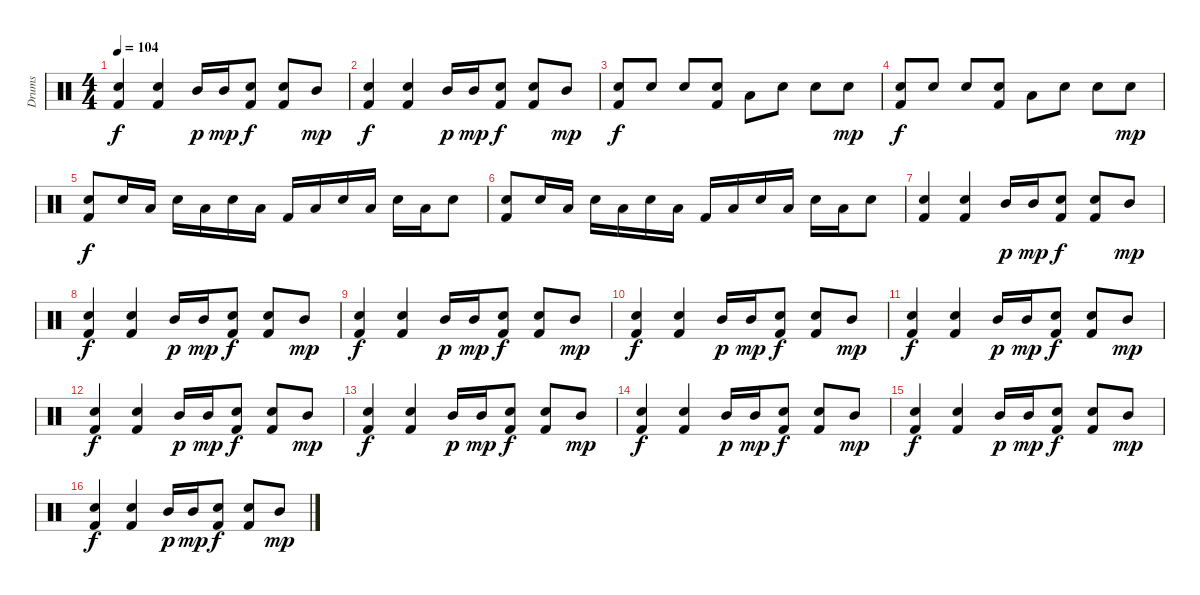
\track ("Drums" "Drums") {instrument percussion}
\staff {score}
\articulation defaults
\ts (4 4)
\tempo 104
\clef neutral
\ks c
("Snare (hit) 2" "Kick (hit) 2").4{dy f} ("Snare (hit) 2" "Kick (hit) 2").4 "Mid Tom (hit)".16{dy p} "Mid Tom (hit)".16{dy mp} ("Snare (hit) 2" "Kick (hit) 2").8{dy f} ("Snare (hit) 2" "Kick (hit) 2").8 "Mid Tom (hit)".8{dy mp} |
("Snare (hit) 2" "Kick (hit) 2").4{dy f} ("Snare (hit) 2" "Kick (hit) 2").4 "Mid Tom (hit)".16{dy p} "Mid Tom (hit)".16{dy mp} ("Snare (hit) 2" "Kick (hit) 2").8{dy f} ("Snare (hit) 2" "Kick (hit) 2").8 "Mid Tom (hit)".8{dy mp} |
("Snare (hit) 2" "Kick (hit) 2").8{dy f} "Snare (hit) 2".8 "Snare (hit) 2".8 ("Snare (hit) 2" "Kick (hit) 2").8 "Low Floor Tom (hit)".8 "Snare (hit) 2".8 "Snare (hit) 2".8 "Snare (hit) 2".8{dy mp} |
("Snare (hit) 2" "Kick (hit) 2").8{dy f} "Snare (hit) 2".8 "Snare (hit) 2".8 ("Snare (hit) 2" "Kick (hit) 2").8 "Low Floor Tom (hit)".8 "Snare (hit) 2".8 "Snare (hit) 2".8 "Snare (hit) 2".8{dy mp} |
("Snare (hit) 2" "Kick (hit) 2").8{dy f} "Snare (hit) 2".16 "Low Floor Tom (hit)".16 "Snare (hit) 2".16 "Low Floor Tom (hit)".16 "Snare (hit) 2".16 "Low Floor Tom (hit)".16 "Kick (hit) 2".16 "Low Floor Tom (hit)".16 "Snare (hit) 2".16 "Low Floor Tom (hit)".16 "Snare (hit) 2".16 "Low Floor Tom (hit)".16 "Snare (hit) 2".8 |
("Snare (hit) 2" "Kick (hit) 2").8 "Snare (hit) 2".16 "Low Floor Tom (hit)".16 "Snare (hit) 2".16 "Low Floor Tom (hit)".16 "Snare (hit) 2".16 "Low Floor Tom (hit)".16 "Kick (hit) 2".16 "Low Floor Tom (hit)".16 "Snare (hit) 2".16 "Low Floor Tom (hit)".16 "Snare (hit) 2".16 "Low Floor Tom (hit)".16 "Snare (hit) 2".8 |
("Snare (hit) 2" "Kick (hit) 2").4 ("Snare (hit) 2" "Kick (hit) 2").4 "Mid Tom (hit)".16{dy p} "Mid Tom (hit)".16{dy mp} ("Snare (hit) 2" "Kick (hit) 2").8{dy f} ("Snare (hit) 2" "Kick (hit) 2").8 "Mid Tom (hit)".8{dy mp} |
("Snare (hit) 2" "Kick (hit) 2").4{dy f} ("Snare (hit) 2" "Kick (hit) 2").4 "Mid Tom (hit)".16{dy p} "Mid Tom (hit)".16{dy mp} ("Snare (hit) 2" "Kick (hit) 2").8{dy f} ("Snare (hit) 2" "Kick (hit) 2").8 "Mid Tom (hit)".8{dy mp} |
("Snare (hit) 2" "Kick (hit) 2").4{dy f} ("Snare (hit) 2" "Kick (hit) 2").4 "Mid Tom (hit)".16{dy p} "Mid Tom (hit)".16{dy mp} ("Snare (hit) 2" "Kick (hit) 2").8{dy f} ("Snare (hit) 2" "Kick (hit) 2").8 "Mid Tom (hit)".8{dy mp} |
("Snare (hit) 2" "Kick (hit) 2").4{dy f} ("Snare (hit) 2" "Kick (hit) 2").4 "Mid Tom (hit)".16{dy p} "Mid Tom (hit)".16{dy mp} ("Snare (hit) 2" "Kick (hit) 2").8{dy f} ("Snare (hit) 2" "Kick (hit) 2").8 "Mid Tom (hit)".8{dy mp} |
("Snare (hit) 2" "Kick (hit) 2").4{dy f} ("Snare (hit) 2" "Kick (hit) 2").4 "Mid Tom (hit)".16{dy p} "Mid Tom (hit)".16{dy mp} ("Snare (hit) 2" "Kick (hit) 2").8{dy f} ("Snare (hit) 2" "Kick (hit) 2").8 "Mid Tom (hit)".8{dy mp} |
("Snare (hit) 2" "Kick (hit) 2").4{dy f} ("Snare (hit) 2" "Kick (hit) 2").4 "Mid Tom (hit)".16{dy p} "Mid Tom (hit)".16{dy mp} ("Snare (hit) 2" "Kick (hit) 2").8{dy f} ("Snare (hit) 2" "Kick (hit) 2").8 "Mid Tom (hit)".8{dy mp} |
("Snare (hit) 2" "Kick (hit) 2").4{dy f} ("Snare (hit) 2" "Kick (hit) 2").4 "Mid Tom (hit)".16{dy p} "Mid Tom (hit)".16{dy mp} ("Snare (hit) 2" "Kick (hit) 2").8{dy f} ("Snare (hit) 2" "Kick (hit) 2").8 "Mid Tom (hit)".8{dy mp} |
("Snare (hit) 2" "Kick (hit) 2").4{dy f} ("Snare (hit) 2" "Kick (hit) 2").4 "Mid Tom (hit)".16{dy p} "Mid Tom (hit)".16{dy mp} ("Snare (hit) 2" "Kick (hit) 2").8{dy f} ("Snare (hit) 2" "Kick (hit) 2").8 "Mid Tom (hit)".8{dy mp} |
("Snare (hit) 2" "Kick (hit) 2").4{dy f} ("Snare (hit) 2" "Kick (hit) 2").4 "Mid Tom (hit)".16{dy p} "Mid Tom (hit)".16{dy mp} ("Snare (hit) 2" "Kick (hit) 2").8{dy f} ("Snare (hit) 2" "Kick (hit) 2").8 "Mid Tom (hit)".8{dy mp} |
("Snare (hit) 2" "Kick (hit) 2").4{dy f volume 5} ("Snare (hit) 2" "Kick (hit) 2").4 "Mid Tom (hit)".16{dy p} "Mid Tom (hit)".16{dy mp} ("Snare (hit) 2" "Kick (hit) 2").8{dy f} ("Snare (hit) 2" "Kick (hit) 2").8 "Mid Tom (hit)".8{dy mp}
